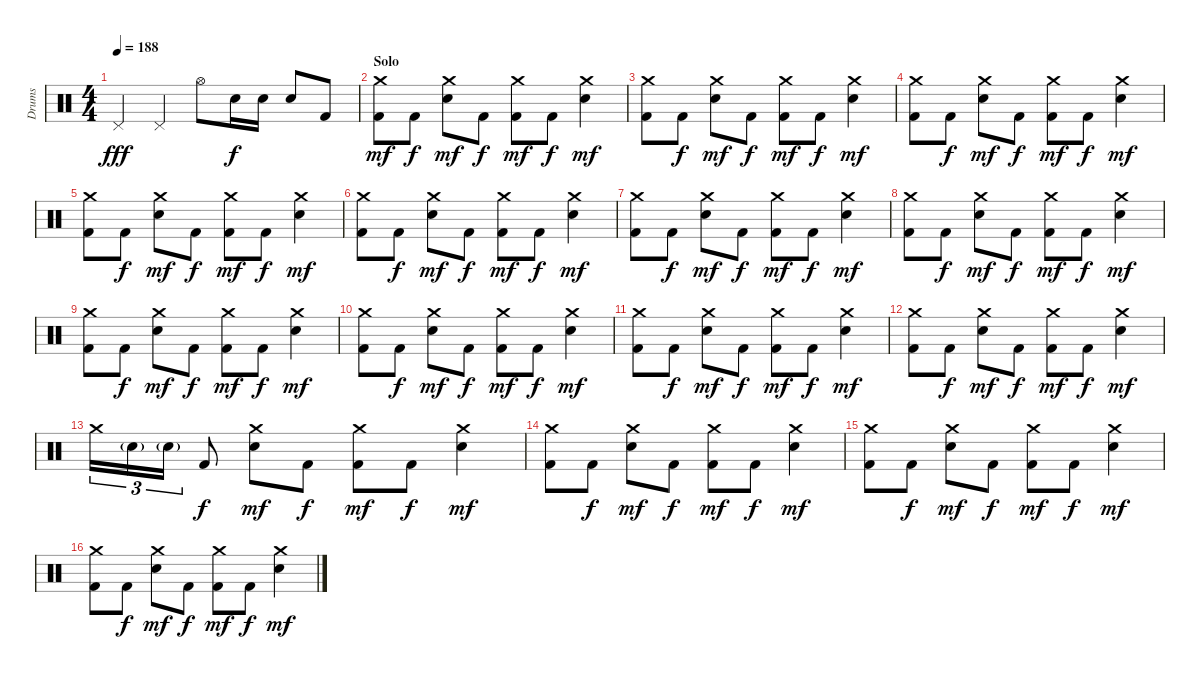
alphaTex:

\track ("Drums" "Drums") {instrument percussion}
\staff {score}
\articulation defaults
\ts (4 4)
\tempo 188
\clef neutral
\ks c "Pedal Hi-Hat (hit)".4{dy fff volume 16} "Pedal Hi-Hat (hit)".4 "Hi-Hat (open)".8 "Snare (hit) 2".16{dy f} "Snare (hit) 2".16 "Snare (hit) 2".8 "Kick (hit) 2".8
|
\section ("" "Solo")
("Crash medium (hit)" "Kick (hit) 2").8{dy mf volume 11} "Kick (hit) 2".8{dy f} ("Crash medium (hit)" "Electric Snare (hit)").8{dy mf} "Kick (hit) 2".8{dy f} ("Crash medium (hit)" "Kick (hit) 2").8{dy mf} "Kick (hit) 2".8{dy f} ("Crash medium (hit)" "Electric Snare (hit)").4{dy mf} |
("Crash medium (hit)" "Kick (hit) 2").8 "Kick (hit) 2".8{dy f} ("Crash medium (hit)" "Electric Snare (hit)").8{dy mf} "Kick (hit) 2".8{dy f} ("Crash medium (hit)" "Kick (hit) 2").8{dy mf} "Kick (hit) 2".8{dy f} ("Crash medium (hit)" "Electric Snare (hit)").4{dy mf} |
("Crash medium (hit)" "Kick (hit) 2").8 "Kick (hit) 2".8{dy f} ("Crash medium (hit)" "Electric Snare (hit)").8{dy mf} "Kick (hit) 2".8{dy f} ("Crash medium (hit)" "Kick (hit) 2").8{dy mf} "Kick (hit) 2".8{dy f} ("Crash medium (hit)" "Electric Snare (hit)").4{dy mf} |
("Crash medium (hit)" "Kick (hit) 2").8 "Kick (hit) 2".8{dy f} ("Crash medium (hit)" "Electric Snare (hit)").8{dy mf} "Kick (hit) 2".8{dy f} ("Crash medium (hit)" "Kick (hit) 2").8{dy mf} "Kick (hit) 2".8{dy f} ("Crash medium (hit)" "Electric Snare (hit)").4{dy mf} |
("Crash medium (hit)" "Kick (hit) 2").8 "Kick (hit) 2".8{dy f} ("Crash medium (hit)" "Electric Snare (hit)").8{dy mf} "Kick (hit) 2".8{dy f} ("Crash medium (hit)" "Kick (hit) 2").8{dy mf} "Kick (hit) 2".8{dy f} ("Crash medium (hit)" "Electric Snare (hit)").4{dy mf} |
("Crash medium (hit)" "Kick (hit) 2").8 "Kick (hit) 2".8{dy f} ("Crash medium (hit)" "Electric Snare (hit)").8{dy mf} "Kick (hit) 2".8{dy f} ("Crash medium (hit)" "Kick (hit) 2").8{dy mf} "Kick (hit) 2".8{dy f} ("Crash medium (hit)" "Electric Snare (hit)").4{dy mf} |
("Crash medium (hit)" "Kick (hit) 2").8 "Kick (hit) 2".8{dy f} ("Crash medium (hit)" "Electric Snare (hit)").8{dy mf} "Kick (hit) 2".8{dy f} ("Crash medium (hit)" "Kick (hit) 2").8{dy mf} "Kick (hit) 2".8{dy f} ("Crash medium (hit)" "Electric Snare (hit)").4{dy mf} |
("Crash medium (hit)" "Kick (hit) 2").8 "Kick (hit) 2".8{dy f} ("Crash medium (hit)" "Electric Snare (hit)").8{dy mf} "Kick (hit) 2".8{dy f} ("Crash medium (hit)" "Kick (hit) 2").8{dy mf} "Kick (hit) 2".8{dy f} ("Crash medium (hit)" "Electric Snare (hit)").4{dy mf} |
("Crash medium (hit)" "Kick (hit) 2").8 "Kick (hit) 2".8{dy f} ("Crash medium (hit)" "Electric Snare (hit)").8{dy mf} "Kick (hit) 2".8{dy f} ("Crash medium (hit)" "Kick (hit) 2").8{dy mf} "Kick (hit) 2".8{dy f} ("Crash medium (hit)" "Electric Snare (hit)").4{dy mf} |
("Crash medium (hit)" "Kick (hit) 2").8 "Kick (hit) 2".8{dy f} ("Crash medium (hit)" "Electric Snare (hit)").8{dy mf} "Kick (hit) 2".8{dy f} ("Crash medium (hit)" "Kick (hit) 2").8{dy mf} "Kick (hit) 2".8{dy f} ("Crash medium (hit)" "Electric Snare (hit)").4{dy mf} |
("Crash medium (hit)" "Kick (hit) 2").8 "Kick (hit) 2".8{dy f} ("Crash medium (hit)" "Electric Snare (hit)").8{dy mf} "Kick (hit) 2".8{dy f} ("Crash medium (hit)" "Kick (hit) 2").8{dy mf} "Kick (hit) 2".8{dy f} ("Crash medium (hit)" "Electric Snare (hit)").4{dy mf} |
"Crash medium (hit)".16{tu (3 2)} "Electric Snare (hit)"{g}.16{tu (3 2)} "Electric Snare (hit)"{g}.16{tu (3 2)} "Kick (hit) 2".8{dy f} ("Crash medium (hit)" "Electric Snare (hit)").8{dy mf} "Kick (hit) 2".8{dy f} ("Crash medium (hit)" "Kick (hit) 2").8{dy mf} "Kick (hit) 2".8{dy f} ("Crash medium (hit)" "Electric Snare (hit)").4{dy mf} |
("Crash medium (hit)" "Kick (hit) 2").8 "Kick (hit) 2".8{dy f} ("Crash medium (hit)" "Electric Snare (hit)").8{dy mf} "Kick (hit) 2".8{dy f} ("Crash medium (hit)" "Kick (hit) 2").8{dy mf} "Kick (hit) 2".8{dy f} ("Crash medium (hit)" "Electric Snare (hit)").4{dy mf} |
("Crash medium (hit)" "Kick (hit) 2").8 "Kick (hit) 2".8{dy f} ("Crash medium (hit)" "Electric Snare (hit)").8{dy mf} "Kick (hit) 2".8{dy f} ("Crash medium (hit)" "Kick (hit) 2").8{dy mf} "Kick (hit) 2".8{dy f} ("Crash medium (hit)" "Electric Snare (hit)").4{dy mf} |
("Crash medium (hit)" "Kick (hit) 2").8 "Kick (hit) 2".8{dy f} ("Crash medium (hit)" "Electric Snare (hit)").8{dy mf} "Kick (hit) 2".8{dy f} ("Crash medium (hit)" "Kick (hit) 2").8{dy mf} "Kick (hit) 2".8{dy f} ("Crash medium (hit)" "Electric Snare (hit)").4{dy mf}
